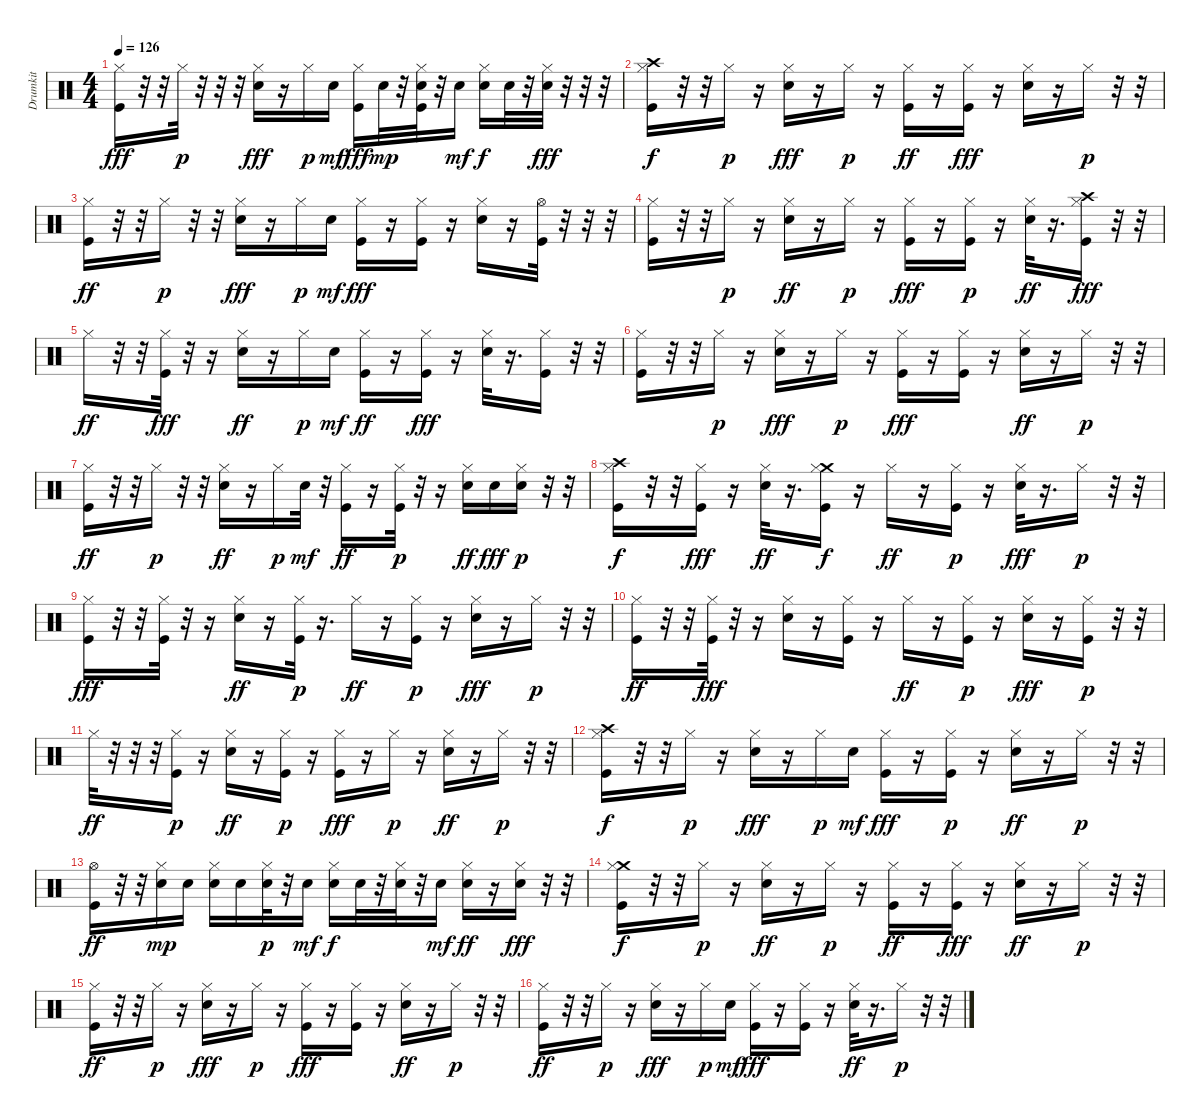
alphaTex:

\track ("Drumkit" "Drumkit") {instrument percussion}
\staff {score}
\articulation defaults
\ts (4 4)
\tempo 126
\clef neutral
\ks c
("Kick (hit)" "Hi-Hat (closed)").16{dy fff} r.32 r.32 "Hi-Hat (closed)".32{dy p} r.32 r.32 r.32 ("Snare (hit) 2" "Hi-Hat (closed)").16{dy fff} r.16 "Hi-Hat (closed)".16{dy p} "Snare (hit) 2".16{dy mf} ("Kick (hit)" "Hi-Hat (closed)").16{dy fff} "Snare (hit) 2".32{dy mp} r.32 ("Snare (hit) 2" "Kick (hit)" "Hi-Hat (closed)").32 r.32 "Snare (hit) 2".16{dy mf} ("Snare (hit) 2" "Hi-Hat (closed)").16{dy f} "Snare (hit) 2".32 r.32 ("Snare (hit) 2" "Hi-Hat (closed)").32{dy fff} r.32 r.32 r.32 |
("Crash high (hit)" "Hi-Hat (closed)" "Kick (hit)").16{dy f} r.32 r.32 "Hi-Hat (closed)".16{dy p} r.16 ("Snare (hit) 2" "Hi-Hat (closed)").16{dy fff} r.16 "Hi-Hat (closed)".16{dy p} r.16 ("Hi-Hat (closed)" "Kick (hit)").16{dy ff} r.16 ("Kick (hit)" "Hi-Hat (closed)").16{dy fff} r.16 ("Snare (hit) 2" "Hi-Hat (closed)").16 r.16 "Hi-Hat (closed)".16{dy p} r.32 r.32 |
("Hi-Hat (closed)" "Kick (hit)").16{dy ff} r.32 r.32 "Hi-Hat (closed)".16{dy p} r.32 r.32 ("Snare (hit) 2" "Hi-Hat (closed)").16{dy fff} r.16 "Hi-Hat (closed)".16{dy p} "Snare (hit) 2".16{dy mf} ("Kick (hit)" "Hi-Hat (closed)").16{dy fff} r.16 ("Kick (hit)" "Hi-Hat (closed)").16 r.16 ("Snare (hit) 2" "Hi-Hat (closed)").16 r.16 ("Kick (hit)" "Hi-Hat (open)").32 r.32 r.32 r.32 |
("Kick (hit)" "Hi-Hat (closed)").16 r.32 r.32 "Hi-Hat (closed)".16{dy p} r.16 ("Hi-Hat (closed)" "Snare (hit) 2").16{dy ff} r.16 "Hi-Hat (closed)".16{dy p} r.16 ("Kick (hit)" "Hi-Hat (closed)").16{dy fff} r.16 ("Hi-Hat (closed)" "Kick (hit)").16{dy p} r.16 ("Hi-Hat (closed)" "Snare (hit) 2").32{dy ff} r.16{d} ("Kick (hit)" "Crash high (hit)" "Hi-Hat (closed)").16{dy fff} r.32 r.32 |
"Hi-Hat (closed)".16{dy ff} r.32 r.32 ("Kick (hit)" "Hi-Hat (closed)").32{dy fff} r.32 r.16 ("Hi-Hat (closed)" "Snare (hit) 2").16{dy ff} r.16 "Hi-Hat (closed)".16{dy p} "Snare (hit) 2".16{dy mf} ("Hi-Hat (closed)" "Kick (hit)").16{dy ff} r.16 ("Kick (hit)" "Hi-Hat (closed)").16{dy fff} r.16 ("Snare (hit) 2" "Hi-Hat (closed)").32 r.16{d} ("Kick (hit)" "Hi-Hat (closed)").16 r.32 r.32 |
("Kick (hit)" "Hi-Hat (closed)").16 r.32 r.32 "Hi-Hat (closed)".16{dy p} r.16 ("Snare (hit) 2" "Hi-Hat (closed)").16{dy fff} r.16 "Hi-Hat (closed)".16{dy p} r.16 ("Kick (hit)" "Hi-Hat (closed)").16{dy fff} r.16 ("Kick (hit)" "Hi-Hat (closed)").16 r.16 ("Hi-Hat (closed)" "Snare (hit) 2").16{dy ff} r.16 "Hi-Hat (closed)".16{dy p} r.32 r.32 |
("Hi-Hat (closed)" "Kick (hit)").16{dy ff} r.32 r.32 "Hi-Hat (closed)".16{dy p} r.32 r.32 ("Hi-Hat (closed)" "Snare (hit) 2").16{dy ff} r.16 "Hi-Hat (closed)".16{dy p} "Snare (hit) 2".32{dy mf} r.32 ("Hi-Hat (closed)" "Kick (hit)").16{dy ff} r.16 ("Hi-Hat (closed)" "Kick (hit)").32{dy p} r.32 r.16 ("Hi-Hat (closed)" "Snare (hit) 2").16{dy ff} "Snare (hit) 2".16{dy fff} ("Hi-Hat (closed)" "Snare (hit) 2").16{dy p} r.32 r.32 |
("Crash high (hit)" "Hi-Hat (closed)" "Kick (hit)").16{dy f} r.32 r.32 ("Kick (hit)" "Hi-Hat (closed)").16{dy fff} r.16 ("Hi-Hat (closed)" "Snare (hit) 2").32{dy ff} r.16{d} ("Crash medium (hit)" "Hi-Hat (closed)" "Kick (hit)").16{dy f} r.16 "Hi-Hat (closed)".16{dy ff} r.16 ("Hi-Hat (closed)" "Kick (hit)").16{dy p} r.16 ("Snare (hit) 2" "Hi-Hat (closed)").32{dy fff} r.16{d} "Hi-Hat (closed)".16{dy p} r.32 r.32 |
("Kick (hit)" "Hi-Hat (closed)").16{dy fff} r.32 r.32 ("Kick (hit)" "Hi-Hat (closed)").32 r.32 r.16 ("Hi-Hat (closed)" "Snare (hit) 2").16{dy ff} r.16 ("Hi-Hat (closed)" "Kick (hit)").32{dy p} r.16{d} "Hi-Hat (closed)".16{dy ff} r.16 ("Hi-Hat (closed)" "Kick (hit)").16{dy p} r.16 ("Snare (hit) 2" "Hi-Hat (closed)").16{dy fff} r.16 "Hi-Hat (closed)".16{dy p} r.32 r.32 |
("Hi-Hat (closed)" "Kick (hit)").16{dy ff} r.32 r.32 ("Kick (hit)" "Hi-Hat (closed)").32{dy fff} r.32 r.16 ("Snare (hit) 2" "Hi-Hat (closed)").16 r.16 ("Kick (hit)" "Hi-Hat (closed)").16 r.16 "Hi-Hat (closed)".16{dy ff} r.16 ("Hi-Hat (closed)" "Kick (hit)").16{dy p} r.16 ("Snare (hit) 2" "Hi-Hat (closed)").16{dy fff} r.16 ("Hi-Hat (closed)" "Kick (hit)").16{dy p} r.32 r.32 |
"Hi-Hat (closed)".32{dy ff} r.32 r.32 r.32 ("Hi-Hat (closed)" "Kick (hit)").16{dy p} r.16 ("Hi-Hat (closed)" "Snare (hit) 2").16{dy ff} r.16 ("Hi-Hat (closed)" "Kick (hit)").16{dy p} r.16 ("Kick (hit)" "Hi-Hat (closed)").16{dy fff} r.16 "Hi-Hat (closed)".16{dy p} r.16 ("Hi-Hat (closed)" "Snare (hit) 2").16{dy ff} r.16 "Hi-Hat (closed)".16{dy p} r.32 r.32 |
("Crash high (hit)" "Kick (hit)" "Hi-Hat (closed)").16{dy f} r.32 r.32 "Hi-Hat (closed)".16{dy p} r.16 ("Snare (hit) 2" "Hi-Hat (closed)").16{dy fff} r.16 "Hi-Hat (closed)".16{dy p} "Snare (hit) 2".16{dy mf} ("Kick (hit)" "Hi-Hat (closed)").16{dy fff} r.16 ("Hi-Hat (closed)" "Kick (hit)").16{dy p} r.16 ("Hi-Hat (closed)" "Snare (hit) 2").16{dy ff} r.16 "Hi-Hat (closed)".16{dy p} r.32 r.32 |
("Hi-Hat (open)" "Kick (hit)").16{dy ff} r.32 r.32 ("Snare (hit) 2" "Hi-Hat (closed)").16{dy mp} "Snare (hit) 2".16 ("Snare (hit) 2" "Hi-Hat (closed)").16 "Snare (hit) 2".16 ("Hi-Hat (closed)" "Snare (hit) 2").32{dy p} r.32 "Snare (hit) 2".16{dy mf} ("Snare (hit) 2" "Hi-Hat (closed)").16{dy f} "Snare (hit) 2".32 r.32 ("Snare (hit) 2" "Hi-Hat (closed)").32 r.32 "Snare (hit) 2".16{dy mf} ("Hi-Hat (closed)" "Snare (hit) 2").16{dy ff} r.16 ("Snare (hit) 2" "Hi-Hat (closed)").16{dy fff} r.32 r.32 |
("Crash medium (hit)" "Kick (hit)" "Hi-Hat (closed)").16{dy f} r.32 r.32 "Hi-Hat (closed)".16{dy p} r.16 ("Hi-Hat (closed)" "Snare (hit) 2").16{dy ff} r.16 "Hi-Hat (closed)".16{dy p} r.16 ("Hi-Hat (closed)" "Kick (hit)").16{dy ff} r.16 ("Kick (hit)" "Hi-Hat (closed)").16{dy fff} r.16 ("Hi-Hat (closed)" "Snare (hit) 2").16{dy ff} r.16 "Hi-Hat (closed)".16{dy p} r.32 r.32 |
("Hi-Hat (closed)" "Kick (hit)").16{dy ff} r.32 r.32 "Hi-Hat (closed)".16{dy p} r.16 ("Snare (hit) 2" "Hi-Hat (closed)").16{dy fff} r.16 "Hi-Hat (closed)".16{dy p} r.16 ("Kick (hit)" "Hi-Hat (closed)").16{dy fff} r.16 ("Kick (hit)" "Hi-Hat (closed)").16 r.16 ("Hi-Hat (closed)" "Snare (hit) 2").16{dy ff} r.16 "Hi-Hat (closed)".16{dy p} r.32 r.32 |
("Hi-Hat (closed)" "Kick (hit)").16{dy ff} r.32 r.32 "Hi-Hat (closed)".16{dy p} r.16 ("Snare (hit) 2" "Hi-Hat (closed)").16{dy fff} r.16 "Hi-Hat (closed)".16{dy p} "Snare (hit) 2".16{dy mf} ("Kick (hit)" "Hi-Hat (closed)").16{dy fff} r.16 ("Kick (hit)" "Hi-Hat (closed)").16 r.16 ("Hi-Hat (closed)" "Snare (hit) 2").32{dy ff} r.16{d} "Hi-Hat (closed)".16{dy p} r.32 r.32
